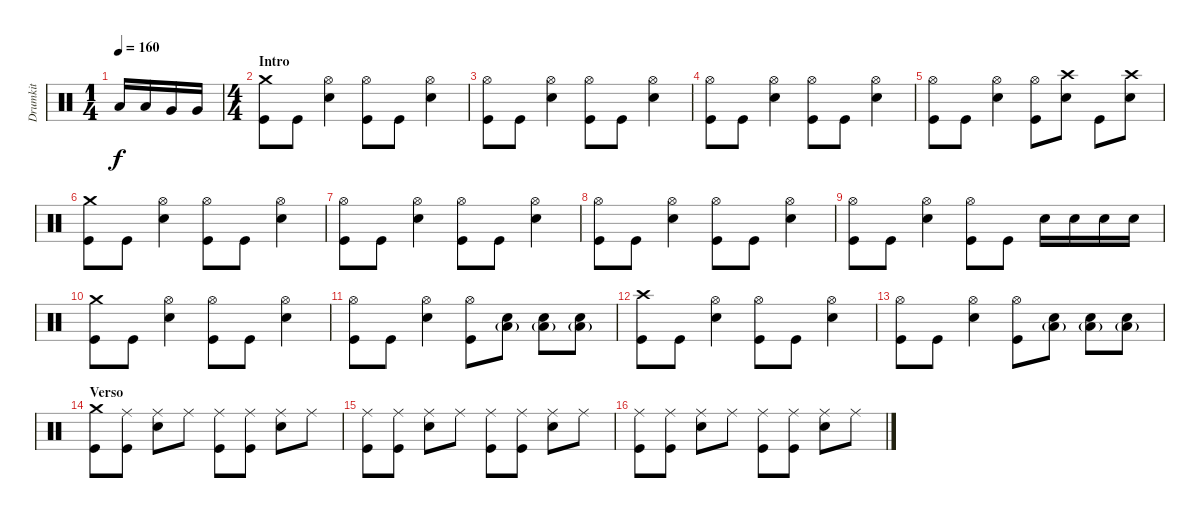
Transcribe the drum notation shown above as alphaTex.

\track ("Drumkit" "Drumkit") {instrument percussion}
\staff {score}
\articulation defaults
\ts (1 4)
\tempo 160
\clef neutral
\ks c "Low Tom (hit)".16{dy f} "Low Tom (hit)".16 "Very Low Tom (hit)".16 "Very Low Tom (hit)".16
|
\ts (4 4)
\section ("" "Intro")
("Crash medium (hit)" "Kick (hit)").8 "Kick (hit)".8 ("Hi-Hat (open)" "Snare (hit) 2").4 ("Hi-Hat (open)" "Kick (hit)").8 "Kick (hit)".8 ("Hi-Hat (open)" "Snare (hit) 2").4 |
("Hi-Hat (open)" "Kick (hit)").8 "Kick (hit)".8 ("Hi-Hat (open)" "Snare (hit) 2").4 ("Hi-Hat (open)" "Kick (hit)").8 "Kick (hit)".8 ("Hi-Hat (open)" "Snare (hit) 2").4 |
("Hi-Hat (open)" "Kick (hit)").8 "Kick (hit)".8 ("Hi-Hat (open)" "Snare (hit) 2").4 ("Hi-Hat (open)" "Kick (hit)").8 "Kick (hit)".8 ("Hi-Hat (open)" "Snare (hit) 2").4 |
("Hi-Hat (open)" "Kick (hit)").8 "Kick (hit)".8 ("Hi-Hat (open)" "Snare (hit) 2").4 ("Hi-Hat (open)" "Kick (hit)").8 ("Crash high (hit)" "Snare (hit) 2").8 "Kick (hit)".8 ("Crash high (hit)" "Snare (hit) 2").8 |
("Crash medium (hit)" "Kick (hit)").8 "Kick (hit)".8 ("Hi-Hat (open)" "Snare (hit) 2").4 ("Hi-Hat (open)" "Kick (hit)").8 "Kick (hit)".8 ("Hi-Hat (open)" "Snare (hit) 2").4 |
("Hi-Hat (open)" "Kick (hit)").8 "Kick (hit)".8 ("Hi-Hat (open)" "Snare (hit) 2").4 ("Hi-Hat (open)" "Kick (hit)").8 "Kick (hit)".8 ("Hi-Hat (open)" "Snare (hit) 2").4 |
("Hi-Hat (open)" "Kick (hit)").8 "Kick (hit)".8 ("Hi-Hat (open)" "Snare (hit) 2").4 ("Hi-Hat (open)" "Kick (hit)").8 "Kick (hit)".8 ("Hi-Hat (open)" "Snare (hit) 2").4 |
("Hi-Hat (open)" "Kick (hit)").8 "Kick (hit)".8 ("Hi-Hat (open)" "Snare (hit) 2").4 ("Hi-Hat (open)" "Kick (hit)").8 "Kick (hit)".8 "Snare (hit) 2".16 "Snare (hit) 2".16 "Snare (hit) 2".16 "Snare (hit) 2".16 |
("Crash medium (hit)" "Kick (hit)").8 "Kick (hit)".8 ("Hi-Hat (open)" "Snare (hit) 2").4 ("Hi-Hat (open)" "Kick (hit)").8 "Kick (hit)".8 ("Hi-Hat (open)" "Snare (hit) 2").4 |
("Hi-Hat (open)" "Kick (hit)").8 "Kick (hit)".8 ("Hi-Hat (open)" "Snare (hit) 2").4 ("Hi-Hat (open)" "Kick (hit)").8 ("Low Floor Tom (hit)"{g} "Snare (hit) 2").8 ("Low Floor Tom (hit)"{g} "Snare (hit) 2").8 ("Low Floor Tom (hit)"{g} "Snare (hit) 2").8 |
("Crash high (hit)" "Kick (hit)").8 "Kick (hit)".8 ("Hi-Hat (open)" "Snare (hit) 2").4 ("Hi-Hat (open)" "Kick (hit)").8 "Kick (hit)".8 ("Hi-Hat (open)" "Snare (hit) 2").4 |
("Hi-Hat (open)" "Kick (hit)").8 "Kick (hit)".8 ("Hi-Hat (open)" "Snare (hit) 2").4 ("Hi-Hat (open)" "Kick (hit)").8 ("Low Floor Tom (hit)"{g} "Snare (hit) 2").8 ("Low Floor Tom (hit)"{g} "Snare (hit) 2").8 ("Low Floor Tom (hit)"{g} "Snare (hit) 2").8 |
\section ("" "Verso")
("Crash medium (hit)" "Kick (hit)").8 ("Ride (middle)" "Kick (hit)").8 ("Ride (middle)" "Snare (hit) 2").8 "Ride (middle)".8 ("Ride (middle)" "Kick (hit)").8 ("Ride (middle)" "Kick (hit)").8 ("Ride (middle)" "Snare (hit) 2").8 "Ride (middle)".8 |
("Ride (middle)" "Kick (hit)").8 ("Ride (middle)" "Kick (hit)").8 ("Ride (middle)" "Snare (hit) 2").8 "Ride (middle)".8 ("Ride (middle)" "Kick (hit)").8 ("Ride (middle)" "Kick (hit)").8 ("Ride (middle)" "Snare (hit) 2").8 "Ride (middle)".8 |
("Ride (middle)" "Kick (hit)").8 ("Ride (middle)" "Kick (hit)").8 ("Ride (middle)" "Snare (hit) 2").8 "Ride (middle)".8 ("Ride (middle)" "Kick (hit)").8 ("Ride (middle)" "Kick (hit)").8 ("Ride (middle)" "Snare (hit) 2").8 "Ride (middle)".8
